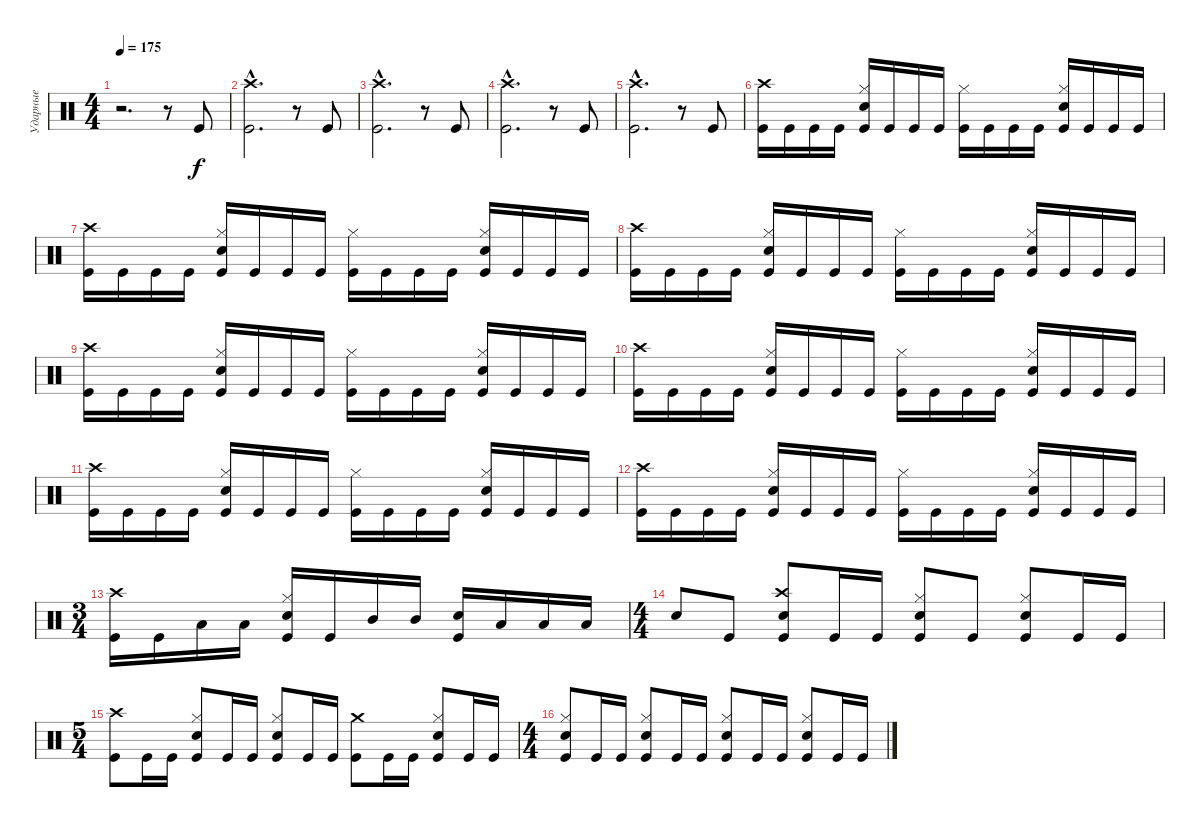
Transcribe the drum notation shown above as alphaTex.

\track ("Ударные" "Ударные") {instrument percussion}
\staff {score}
\articulation defaults
\ts (4 4)
\tempo 175
\clef neutral
\ks c
r.2{d dy f} r.8 "Kick (hit)".8 |
("Crash high (hit)"{hac} "Kick (hit)"{hac}).2{d} r.8 "Kick (hit)".8 |
("Crash high (hit)"{hac} "Kick (hit)"{hac}).2{d} r.8 "Kick (hit)".8 |
("Crash high (hit)"{hac} "Kick (hit)"{hac}).2{d} r.8 "Kick (hit)".8 |
("Crash high (hit)"{hac} "Kick (hit)"{hac}).2{d} r.8 "Kick (hit)".8 |
("Crash high (hit)" "Kick (hit)").16 "Kick (hit)".16 "Kick (hit)".16 "Kick (hit)".16 ("Hi-Hat (closed)" "Electric Snare (hit)" "Kick (hit)").16 "Kick (hit)".16 "Kick (hit)".16 "Kick (hit)".16 ("Hi-Hat (closed)" "Kick (hit)").16 "Kick (hit)".16 "Kick (hit)".16 "Kick (hit)".16 ("Hi-Hat (closed)" "Electric Snare (hit)" "Kick (hit)").16 "Kick (hit)".16 "Kick (hit)".16 "Kick (hit)".16 |
("Crash high (hit)" "Kick (hit)").16 "Kick (hit)".16 "Kick (hit)".16 "Kick (hit)".16 ("Hi-Hat (closed)" "Electric Snare (hit)" "Kick (hit)").16 "Kick (hit)".16 "Kick (hit)".16 "Kick (hit)".16 ("Hi-Hat (closed)" "Kick (hit)").16 "Kick (hit)".16 "Kick (hit)".16 "Kick (hit)".16 ("Hi-Hat (closed)" "Electric Snare (hit)" "Kick (hit)").16 "Kick (hit)".16 "Kick (hit)".16 "Kick (hit)".16 |
("Crash high (hit)" "Kick (hit)").16 "Kick (hit)".16 "Kick (hit)".16 "Kick (hit)".16 ("Hi-Hat (closed)" "Electric Snare (hit)" "Kick (hit)").16 "Kick (hit)".16 "Kick (hit)".16 "Kick (hit)".16 ("Hi-Hat (closed)" "Kick (hit)").16 "Kick (hit)".16 "Kick (hit)".16 "Kick (hit)".16 ("Hi-Hat (closed)" "Electric Snare (hit)" "Kick (hit)").16 "Kick (hit)".16 "Kick (hit)".16 "Kick (hit)".16 |
("Crash high (hit)" "Kick (hit)").16 "Kick (hit)".16 "Kick (hit)".16 "Kick (hit)".16 ("Hi-Hat (closed)" "Electric Snare (hit)" "Kick (hit)").16 "Kick (hit)".16 "Kick (hit)".16 "Kick (hit)".16 ("Hi-Hat (closed)" "Kick (hit)").16 "Kick (hit)".16 "Kick (hit)".16 "Kick (hit)".16 ("Hi-Hat (closed)" "Electric Snare (hit)" "Kick (hit)").16 "Kick (hit)".16 "Kick (hit)".16 "Kick (hit)".16 |
("Crash high (hit)" "Kick (hit)").16 "Kick (hit)".16 "Kick (hit)".16 "Kick (hit)".16 ("Hi-Hat (closed)" "Electric Snare (hit)" "Kick (hit)").16 "Kick (hit)".16 "Kick (hit)".16 "Kick (hit)".16 ("Hi-Hat (closed)" "Kick (hit)").16 "Kick (hit)".16 "Kick (hit)".16 "Kick (hit)".16 ("Hi-Hat (closed)" "Electric Snare (hit)" "Kick (hit)").16 "Kick (hit)".16 "Kick (hit)".16 "Kick (hit)".16 |
("Crash high (hit)" "Kick (hit)").16 "Kick (hit)".16 "Kick (hit)".16 "Kick (hit)".16 ("Hi-Hat (closed)" "Electric Snare (hit)" "Kick (hit)").16 "Kick (hit)".16 "Kick (hit)".16 "Kick (hit)".16 ("Hi-Hat (closed)" "Kick (hit)").16 "Kick (hit)".16 "Kick (hit)".16 "Kick (hit)".16 ("Hi-Hat (closed)" "Electric Snare (hit)" "Kick (hit)").16 "Kick (hit)".16 "Kick (hit)".16 "Kick (hit)".16 |
("Crash high (hit)" "Kick (hit)").16 "Kick (hit)".16 "Kick (hit)".16 "Kick (hit)".16 ("Hi-Hat (closed)" "Electric Snare (hit)" "Kick (hit)").16 "Kick (hit)".16 "Kick (hit)".16 "Kick (hit)".16 ("Hi-Hat (closed)" "Kick (hit)").16 "Kick (hit)".16 "Kick (hit)".16 "Kick (hit)".16 ("Hi-Hat (closed)" "Electric Snare (hit)" "Kick (hit)").16 "Kick (hit)".16 "Kick (hit)".16 "Kick (hit)".16 |
\ts (3 4)
("Crash high (hit)" "Kick (hit)").16 "Kick (hit)".16 "Low Tom (hit)".16 "Low Tom (hit)".16 ("Hi-Hat (closed)" "Electric Snare (hit)" "Kick (hit)").16 "Kick (hit)".16 "Mid Tom (hit)".16 "Mid Tom (hit)".16 ("Electric Snare (hit)" "Kick (hit)").16 "Low Tom (hit)".16 "Low Tom (hit)".16 "Low Tom (hit)".16 |
\ts (4 4)
"Electric Snare (hit)".8 "Kick (hit)".8 ("Crash high (hit)" "Electric Snare (hit)" "Kick (hit)").8 "Kick (hit)".16 "Kick (hit)".16 ("Hi-Hat (closed)" "Electric Snare (hit)" "Kick (hit)").8 "Kick (hit)".8 ("Hi-Hat (closed)" "Electric Snare (hit)" "Kick (hit)").8 "Kick (hit)".16 "Kick (hit)".16 |
\ts (5 4)
("Crash high (hit)" "Kick (hit)").8 "Kick (hit)".16 "Kick (hit)".16 ("Hi-Hat (closed)" "Electric Snare (hit)" "Kick (hit)").8 "Kick (hit)".16 "Kick (hit)".16 ("Hi-Hat (closed)" "Electric Snare (hit)" "Kick (hit)").8 "Kick (hit)".16 "Kick (hit)".16 ("Crash medium (hit)" "Kick (hit)").8 "Kick (hit)".16 "Kick (hit)".16 ("Hi-Hat (closed)" "Electric Snare (hit)" "Kick (hit)").8 "Kick (hit)".16 "Kick (hit)".16 |
\ts (4 4)
("Hi-Hat (closed)" "Electric Snare (hit)" "Kick (hit)").8 "Kick (hit)".16 "Kick (hit)".16 ("Hi-Hat (closed)" "Electric Snare (hit)" "Kick (hit)").8 "Kick (hit)".16 "Kick (hit)".16 ("Hi-Hat (closed)" "Electric Snare (hit)" "Kick (hit)").8 "Kick (hit)".16 "Kick (hit)".16 ("Hi-Hat (closed)" "Electric Snare (hit)" "Kick (hit)").8 "Kick (hit)".16 "Kick (hit)".16
